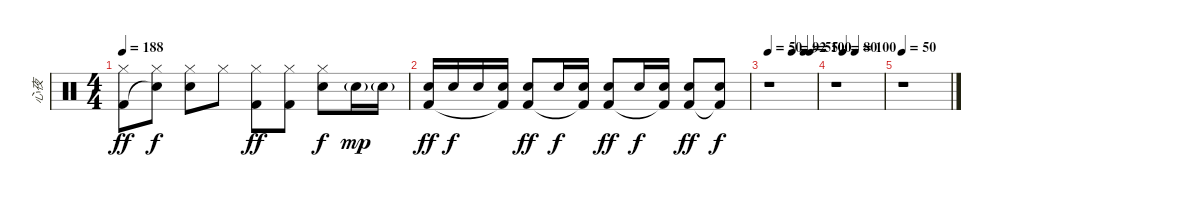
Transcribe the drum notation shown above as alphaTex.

\track ("心夜" "心夜") {instrument percussion}
\staff {score}
\articulation defaults
\ts (4 4)
\tempo 188
\clef neutral
\ks c
("Hi-Hat (closed)" "Kick (hit) 2").8{dy ff} ("Hi-Hat (closed)" "Snare (hit)"{t}).8{dy f} ("Hi-Hat (closed)" "Electric Snare (hit)").8 "Hi-Hat (closed)".8 ("Hi-Hat (closed)" "Kick (hit) 2").8{dy ff} ("Hi-Hat (closed)" "Kick (hit) 2").8 ("Hi-Hat (closed)" "Electric Snare (hit)").8{dy f} "Electric Snare (hit)"{g}.16{dy mp} "Electric Snare (hit)"{g}.16 |
("Electric Snare (hit)" "Kick (hit) 2").16{dy ff} "Electric Snare (hit)".16{dy f} "Electric Snare (hit)".16 ("Electric Snare (hit)" "Kick (hit) 2"{t}).16 ("Electric Snare (hit)" "Kick (hit) 2").8{dy ff} "Electric Snare (hit)".16{dy f} ("Electric Snare (hit)" "Kick (hit) 2"{t}).16 ("Electric Snare (hit)" "Kick (hit) 2").8{dy ff} "Electric Snare (hit)".16{dy f} ("Electric Snare (hit)" "Kick (hit) 2"{t}).16 ("Electric Snare (hit)" "Kick (hit) 2").8{dy ff} ("Electric Snare (hit)" "Kick (hit) 2"{t}).8{dy f} |
\tempo 50
\tempo (92 0.5)
\tempo (55 0.75)
\tempo (100 0.875)
r.1 |
\tempo (80 0.16666666666666666)
\tempo (100 0.4166666666666667)
r.1 |
\tempo 50
r.1
